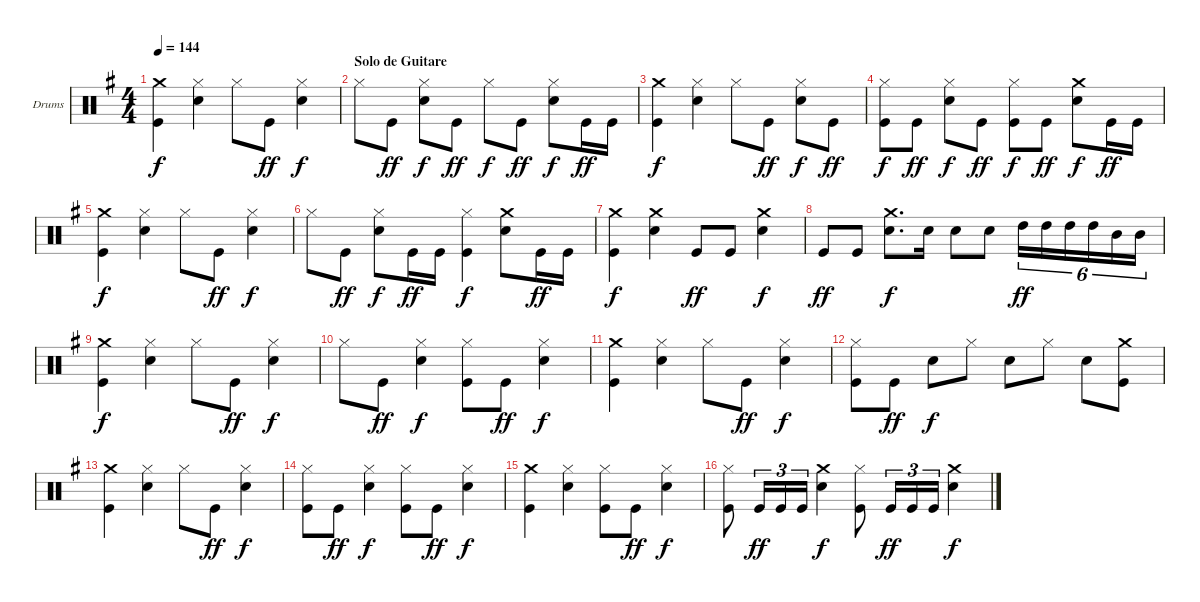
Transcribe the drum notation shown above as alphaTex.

\bracketExtendMode groupsimilarinstruments
\firstSystemTrackNameOrientation horizontal
\otherSystemsTrackNameOrientation horizontal
\track ("Drumkit" "Drums") {instrument percussion}
\staff {score}
\articulation defaults
\ts (4 4)
\tempo 144
\clef neutral
\ks g
("Crash medium (hit)" "Kick (hit)").4{dy f} ("Hi-Hat (closed)" "Snare (hit) 2").4 "Hi-Hat (closed)".8 "Kick (hit)".8{dy ff} ("Hi-Hat (closed)" "Snare (hit) 2").4{dy f} |
\section ("" "Solo de Guitare")
"Hi-Hat (closed)".8 "Kick (hit)".8{dy ff} ("Hi-Hat (closed)" "Snare (hit) 2").8{dy f} "Kick (hit)".8{dy ff} "Hi-Hat (closed)".8{dy f} "Kick (hit)".8{dy ff} ("Hi-Hat (closed)" "Snare (hit) 2").8{dy f} "Kick (hit)".16{dy ff} "Kick (hit)".16 |
("Crash medium (hit)" "Kick (hit)").4{dy f} ("Hi-Hat (closed)" "Snare (hit) 2").4 "Hi-Hat (closed)".8 "Kick (hit)".8{dy ff} ("Hi-Hat (closed)" "Snare (hit) 2").8{dy f} "Kick (hit)".8{dy ff} |
("Hi-Hat (closed)" "Kick (hit)").8{dy f} "Kick (hit)".8{dy ff} ("Hi-Hat (closed)" "Snare (hit) 2").8{dy f} "Kick (hit)".8{dy ff} ("Hi-Hat (closed)" "Kick (hit)").8{dy f} "Kick (hit)".8{dy ff} ("Crash medium (hit)" "Snare (hit) 2").8{dy f} "Kick (hit)".16{dy ff} "Kick (hit)".16 |
("Crash medium (hit)" "Kick (hit)").4{dy f} ("Hi-Hat (closed)" "Snare (hit) 2").4 "Hi-Hat (closed)".8 "Kick (hit)".8{dy ff} ("Hi-Hat (closed)" "Snare (hit) 2").4{dy f} |
"Hi-Hat (closed)".8 "Kick (hit)".8{dy ff} ("Hi-Hat (closed)" "Snare (hit) 2").8{dy f} "Kick (hit)".16{dy ff} "Kick (hit)".16 ("Hi-Hat (closed)" "Kick (hit)").4{dy f} ("Crash medium (hit)" "Snare (hit) 2").8 "Kick (hit)".16{dy ff} "Kick (hit)".16 |
("Crash medium (hit)" "Kick (hit)").4{dy f} ("Crash medium (hit)" "Snare (hit) 2").4 "Kick (hit)".8{dy ff} "Kick (hit)".8 ("Crash medium (hit)" "Snare (hit) 2").4{dy f} |
"Kick (hit)".8{dy ff} "Kick (hit)".8 ("Crash medium (hit)" "Snare (hit) 2").8{d dy f} "Snare (hit) 2".16 "Snare (hit) 2".8 "Snare (hit) 2".8 "High Tom (hit)".16{tu (6 4) dy ff} "High Tom (hit)".16{tu (6 4)} "High Tom (hit)".16{tu (6 4)} "High Tom (hit)".16{tu (6 4)} "Mid Tom (hit)".16{tu (6 4)} "Mid Tom (hit)".16{tu (6 4)} |
("Crash medium (hit)" "Kick (hit)").4{dy f} ("Hi-Hat (closed)" "Snare (hit) 2").4 "Hi-Hat (closed)".8 "Kick (hit)".8{dy ff} ("Hi-Hat (closed)" "Snare (hit) 2").4{dy f} |
"Hi-Hat (closed)".8 "Kick (hit)".8{dy ff} ("Hi-Hat (closed)" "Snare (hit) 2").4{dy f} ("Hi-Hat (closed)" "Kick (hit)").8 "Kick (hit)".8{dy ff} ("Hi-Hat (closed)" "Snare (hit) 2").4{dy f} |
("Crash medium (hit)" "Kick (hit)").4 ("Hi-Hat (closed)" "Snare (hit) 2").4 "Hi-Hat (closed)".8 "Kick (hit)".8{dy ff} ("Hi-Hat (closed)" "Snare (hit) 2").4{dy f} |
("Hi-Hat (closed)" "Kick (hit)").8 "Kick (hit)".8{dy ff} "Snare (hit) 2".8{dy f} "Hi-Hat (closed)".8 "Snare (hit) 2".8 "Hi-Hat (closed)".8 "Snare (hit) 2".8 ("Crash medium (hit)" "Kick (hit)").8 |
("Crash medium (hit)" "Kick (hit)").4 ("Hi-Hat (closed)" "Snare (hit) 2").4 "Hi-Hat (closed)".8 "Kick (hit)".8{dy ff} ("Hi-Hat (closed)" "Snare (hit) 2").4{dy f} |
("Hi-Hat (closed)" "Kick (hit)").8 "Kick (hit)".8{dy ff} ("Hi-Hat (closed)" "Snare (hit) 2").4{dy f} ("Hi-Hat (closed)" "Kick (hit)").8 "Kick (hit)".8{dy ff} ("Hi-Hat (closed)" "Snare (hit) 2").4{dy f} |
("Crash medium (hit)" "Kick (hit)").4 ("Hi-Hat (closed)" "Snare (hit) 2").4 ("Hi-Hat (closed)" "Kick (hit)").8 "Kick (hit)".8{dy ff} ("Hi-Hat (closed)" "Snare (hit) 2").4{dy f} |
("Hi-Hat (closed)" "Kick (hit)").8 "Kick (hit)".16{tu (3 2) dy ff} "Kick (hit)".16{tu (3 2)} "Kick (hit)".16{tu (3 2)} ("Crash medium (hit)" "Snare (hit) 2").4{dy f} ("Hi-Hat (closed)" "Kick (hit)").8 "Kick (hit)".16{tu (3 2) dy ff} "Kick (hit)".16{tu (3 2)} "Kick (hit)".16{tu (3 2)} ("Crash medium (hit)" "Snare (hit) 2").4{dy f}
